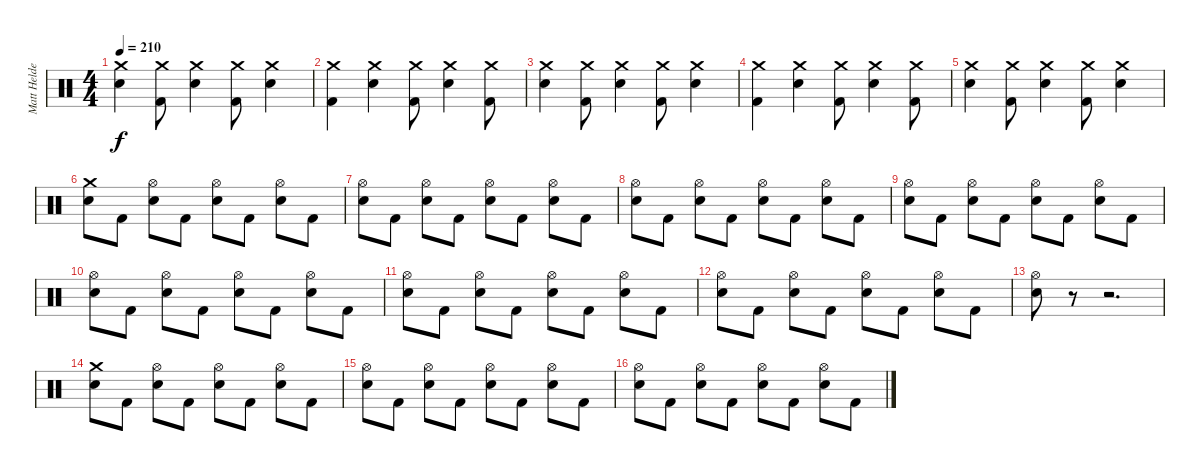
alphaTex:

\track ("Matt Helders" "Matt Helde") {instrument percussion}
\staff {score}
\articulation defaults
\ts (4 4)
\tempo 210
\clef neutral
\ks c
("Crash medium (hit)" "Snare (hit) 2").4{dy f} ("Crash medium (hit)" "Kick (hit) 2").8 ("Crash medium (hit)" "Snare (hit) 2").4 ("Crash medium (hit)" "Kick (hit) 2").8 ("Crash medium (hit)" "Snare (hit) 2").4 |
("Crash medium (hit)" "Kick (hit) 2").4 ("Crash medium (hit)" "Snare (hit) 2").4 ("Crash medium (hit)" "Kick (hit) 2").8 ("Crash medium (hit)" "Snare (hit) 2").4 ("Crash medium (hit)" "Kick (hit) 2").8 |
("Crash medium (hit)" "Snare (hit) 2").4 ("Crash medium (hit)" "Kick (hit) 2").8 ("Crash medium (hit)" "Snare (hit) 2").4 ("Crash medium (hit)" "Kick (hit) 2").8 ("Crash medium (hit)" "Snare (hit) 2").4 |
("Crash medium (hit)" "Kick (hit) 2").4 ("Crash medium (hit)" "Snare (hit) 2").4 ("Crash medium (hit)" "Kick (hit) 2").8 ("Crash medium (hit)" "Snare (hit) 2").4 ("Crash medium (hit)" "Kick (hit) 2").8 |
("Crash medium (hit)" "Snare (hit) 2").4 ("Crash medium (hit)" "Kick (hit) 2").8 ("Crash medium (hit)" "Snare (hit) 2").4 ("Crash medium (hit)" "Kick (hit) 2").8 ("Crash medium (hit)" "Snare (hit) 2").4 |
("Crash medium (hit)" "Snare (hit) 2").8 "Kick (hit) 2".8 ("Hi-Hat (open)" "Snare (hit) 2").8 "Kick (hit) 2".8 ("Hi-Hat (open)" "Snare (hit) 2").8 "Kick (hit) 2".8 ("Hi-Hat (open)" "Snare (hit) 2").8 "Kick (hit) 2".8 |
("Hi-Hat (open)" "Snare (hit) 2").8 "Kick (hit) 2".8 ("Hi-Hat (open)" "Snare (hit) 2").8 "Kick (hit) 2".8 ("Hi-Hat (open)" "Snare (hit) 2").8 "Kick (hit) 2".8 ("Hi-Hat (open)" "Snare (hit) 2").8 "Kick (hit) 2".8 |
("Hi-Hat (open)" "Snare (hit) 2").8 "Kick (hit) 2".8 ("Hi-Hat (open)" "Snare (hit) 2").8 "Kick (hit) 2".8 ("Hi-Hat (open)" "Snare (hit) 2").8 "Kick (hit) 2".8 ("Hi-Hat (open)" "Snare (hit) 2").8 "Kick (hit) 2".8 |
("Hi-Hat (open)" "Snare (hit) 2").8 "Kick (hit) 2".8 ("Hi-Hat (open)" "Snare (hit) 2").8 "Kick (hit) 2".8 ("Hi-Hat (open)" "Snare (hit) 2").8 "Kick (hit) 2".8 ("Hi-Hat (open)" "Snare (hit) 2").8 "Kick (hit) 2".8 |
("Hi-Hat (open)" "Snare (hit) 2").8 "Kick (hit) 2".8 ("Hi-Hat (open)" "Snare (hit) 2").8 "Kick (hit) 2".8 ("Hi-Hat (open)" "Snare (hit) 2").8 "Kick (hit) 2".8 ("Hi-Hat (open)" "Snare (hit) 2").8 "Kick (hit) 2".8 |
("Hi-Hat (open)" "Snare (hit) 2").8 "Kick (hit) 2".8 ("Hi-Hat (open)" "Snare (hit) 2").8 "Kick (hit) 2".8 ("Hi-Hat (open)" "Snare (hit) 2").8 "Kick (hit) 2".8 ("Hi-Hat (open)" "Snare (hit) 2").8 "Kick (hit) 2".8 |
("Hi-Hat (open)" "Snare (hit) 2").8 "Kick (hit) 2".8 ("Hi-Hat (open)" "Snare (hit) 2").8 "Kick (hit) 2".8 ("Hi-Hat (open)" "Snare (hit) 2").8 "Kick (hit) 2".8 ("Hi-Hat (open)" "Snare (hit) 2").8 "Kick (hit) 2".8 |
("Hi-Hat (open)" "Snare (hit) 2").8 r.8 r.2{d} |
("Crash medium (hit)" "Snare (hit) 2").8 "Kick (hit) 2".8 ("Hi-Hat (open)" "Snare (hit) 2").8 "Kick (hit) 2".8 ("Hi-Hat (open)" "Snare (hit) 2").8 "Kick (hit) 2".8 ("Hi-Hat (open)" "Snare (hit) 2").8 "Kick (hit) 2".8 |
("Hi-Hat (open)" "Snare (hit) 2").8 "Kick (hit) 2".8 ("Hi-Hat (open)" "Snare (hit) 2").8 "Kick (hit) 2".8 ("Hi-Hat (open)" "Snare (hit) 2").8 "Kick (hit) 2".8 ("Hi-Hat (open)" "Snare (hit) 2").8 "Kick (hit) 2".8 |
("Hi-Hat (open)" "Snare (hit) 2").8 "Kick (hit) 2".8 ("Hi-Hat (open)" "Snare (hit) 2").8 "Kick (hit) 2".8 ("Hi-Hat (open)" "Snare (hit) 2").8 "Kick (hit) 2".8 ("Hi-Hat (open)" "Snare (hit) 2").8 "Kick (hit) 2".8
